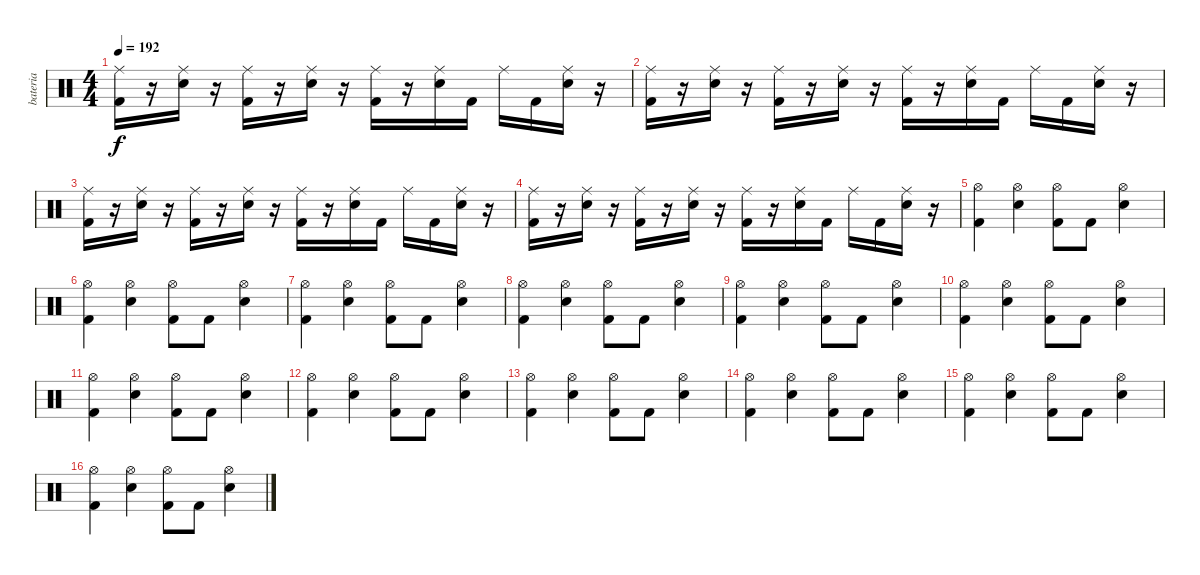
\track ("bateria" "bateria") {instrument percussion}
\staff {score}
\articulation defaults
\ts (4 4)
\tempo 192
\clef neutral
\ks c
("Ride (middle)" "Kick (hit) 2").16{dy f} r.16 ("Ride (middle)" "Snare (hit) 2").16 r.16 ("Ride (middle)" "Kick (hit) 2").16 r.16 ("Ride (middle)" "Snare (hit) 2").16 r.16 ("Ride (middle)" "Kick (hit) 2").16 r.16 ("Ride (middle)" "Snare (hit) 2").16 "Kick (hit) 2".16 "Ride (middle)".16 "Kick (hit) 2".16 ("Ride (middle)" "Snare (hit) 2").16 r.16 |
("Ride (middle)" "Kick (hit) 2").16 r.16 ("Ride (middle)" "Snare (hit) 2").16 r.16 ("Ride (middle)" "Kick (hit) 2").16 r.16 ("Ride (middle)" "Snare (hit) 2").16 r.16 ("Ride (middle)" "Kick (hit) 2").16 r.16 ("Ride (middle)" "Snare (hit) 2").16 "Kick (hit) 2".16 "Ride (middle)".16 "Kick (hit) 2".16 ("Ride (middle)" "Snare (hit) 2").16 r.16 |
("Ride (middle)" "Kick (hit) 2").16 r.16 ("Ride (middle)" "Snare (hit) 2").16 r.16 ("Ride (middle)" "Kick (hit) 2").16 r.16 ("Ride (middle)" "Snare (hit) 2").16 r.16 ("Ride (middle)" "Kick (hit) 2").16 r.16 ("Ride (middle)" "Snare (hit) 2").16 "Kick (hit) 2".16 "Ride (middle)".16 "Kick (hit) 2".16 ("Ride (middle)" "Snare (hit) 2").16 r.16 |
("Ride (middle)" "Kick (hit) 2").16 r.16 ("Ride (middle)" "Snare (hit) 2").16 r.16 ("Ride (middle)" "Kick (hit) 2").16 r.16 ("Ride (middle)" "Snare (hit) 2").16 r.16 ("Ride (middle)" "Kick (hit) 2").16 r.16 ("Ride (middle)" "Snare (hit) 2").16 "Kick (hit) 2".16 "Ride (middle)".16 "Kick (hit) 2".16 ("Ride (middle)" "Snare (hit) 2").16 r.16 |
("Hi-Hat (open)" "Kick (hit) 2").4 ("Hi-Hat (open)" "Snare (hit) 2").4 ("Hi-Hat (open)" "Kick (hit) 2").8 "Kick (hit) 2".8 ("Hi-Hat (open)" "Snare (hit) 2").4 |
("Hi-Hat (open)" "Kick (hit) 2").4 ("Hi-Hat (open)" "Snare (hit) 2").4 ("Hi-Hat (open)" "Kick (hit) 2").8 "Kick (hit) 2".8 ("Hi-Hat (open)" "Snare (hit) 2").4 |
("Hi-Hat (open)" "Kick (hit) 2").4 ("Hi-Hat (open)" "Snare (hit) 2").4 ("Hi-Hat (open)" "Kick (hit) 2").8 "Kick (hit) 2".8 ("Hi-Hat (open)" "Snare (hit) 2").4 |
("Hi-Hat (open)" "Kick (hit) 2").4 ("Hi-Hat (open)" "Snare (hit) 2").4 ("Hi-Hat (open)" "Kick (hit) 2").8 "Kick (hit) 2".8 ("Hi-Hat (open)" "Snare (hit) 2").4 |
("Hi-Hat (open)" "Kick (hit) 2").4 ("Hi-Hat (open)" "Snare (hit) 2").4 ("Hi-Hat (open)" "Kick (hit) 2").8 "Kick (hit) 2".8 ("Hi-Hat (open)" "Snare (hit) 2").4 |
("Hi-Hat (open)" "Kick (hit) 2").4 ("Hi-Hat (open)" "Snare (hit) 2").4 ("Hi-Hat (open)" "Kick (hit) 2").8 "Kick (hit) 2".8 ("Hi-Hat (open)" "Snare (hit) 2").4 |
("Hi-Hat (open)" "Kick (hit) 2").4 ("Hi-Hat (open)" "Snare (hit) 2").4 ("Hi-Hat (open)" "Kick (hit) 2").8 "Kick (hit) 2".8 ("Hi-Hat (open)" "Snare (hit) 2").4 |
("Hi-Hat (open)" "Kick (hit) 2").4 ("Hi-Hat (open)" "Snare (hit) 2").4 ("Hi-Hat (open)" "Kick (hit) 2").8 "Kick (hit) 2".8 ("Hi-Hat (open)" "Snare (hit) 2").4 |
("Hi-Hat (open)" "Kick (hit) 2").4 ("Hi-Hat (open)" "Snare (hit) 2").4 ("Hi-Hat (open)" "Kick (hit) 2").8 "Kick (hit) 2".8 ("Hi-Hat (open)" "Snare (hit) 2").4 |
("Hi-Hat (open)" "Kick (hit) 2").4 ("Hi-Hat (open)" "Snare (hit) 2").4 ("Hi-Hat (open)" "Kick (hit) 2").8 "Kick (hit) 2".8 ("Hi-Hat (open)" "Snare (hit) 2").4 |
("Hi-Hat (open)" "Kick (hit) 2").4 ("Hi-Hat (open)" "Snare (hit) 2").4 ("Hi-Hat (open)" "Kick (hit) 2").8 "Kick (hit) 2".8 ("Hi-Hat (open)" "Snare (hit) 2").4 |
("Hi-Hat (open)" "Kick (hit) 2").4 ("Hi-Hat (open)" "Snare (hit) 2").4 ("Hi-Hat (open)" "Kick (hit) 2").8 "Kick (hit) 2".8 ("Hi-Hat (open)" "Snare (hit) 2").4
